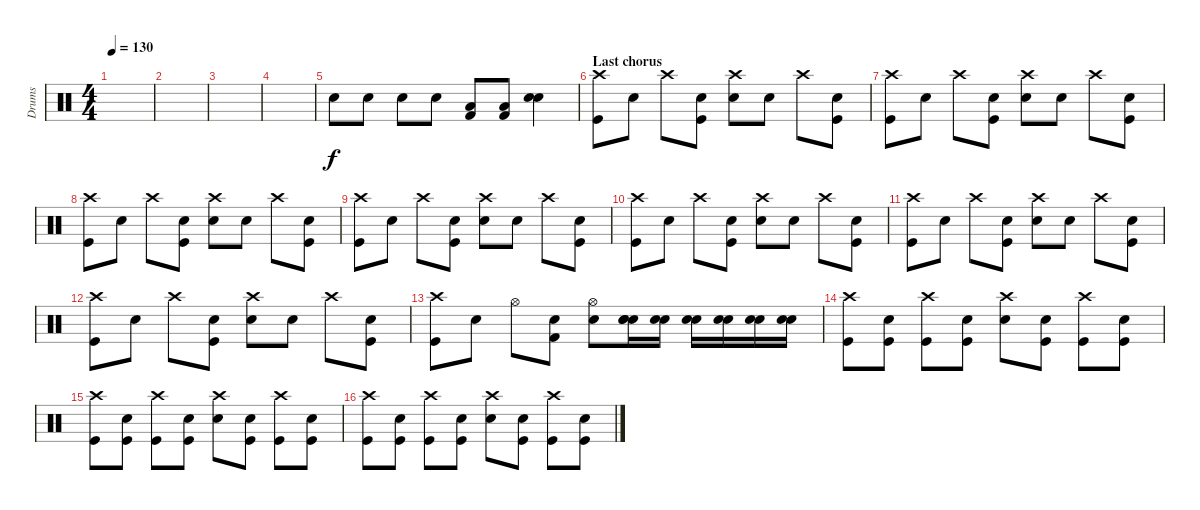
\track ("Drums" "Drums") {instrument percussion}
\staff {score}
\articulation defaults
\ts (4 4)
\tempo 130
\clef neutral
\ks c
|
|
|
|
"Snare (hit)"{x}.8 "Snare (hit)"{x}.8 "Snare (hit)"{x}.8 "Snare (hit)"{x}.8 ("Kick (hit) 2" "Low Tom (hit)").8 ("Kick (hit) 2" "Low Tom (hit)").8 ("Electric Snare (hit)" "Snare (hit) 2").4 |
\section ("" "Last chorus")
("Crash high (hit)" "Kick (hit)").8 "Snare (hit)"{x}.8 "Crash high (hit)".8 ("Snare (hit)"{x} "Kick (hit)").8 ("Crash high (hit)" "Electric Snare (hit)").8 "Snare (hit)"{x}.8 "Crash high (hit)".8 ("Snare (hit)"{x} "Kick (hit)").8 |
("Crash high (hit)" "Kick (hit)").8 "Snare (hit)"{x}.8 "Crash high (hit)".8 ("Snare (hit)"{x} "Kick (hit)").8 ("Crash high (hit)" "Electric Snare (hit)").8 "Snare (hit)"{x}.8 "Crash high (hit)".8 ("Snare (hit)"{x} "Kick (hit)").8 |
("Crash high (hit)" "Kick (hit)").8 "Snare (hit)"{x}.8 "Crash high (hit)".8 ("Snare (hit)"{x} "Kick (hit)").8 ("Crash high (hit)" "Electric Snare (hit)").8 "Snare (hit)"{x}.8 "Crash high (hit)".8 ("Snare (hit)"{x} "Kick (hit)").8 |
("Crash high (hit)" "Kick (hit)").8 "Snare (hit)"{x}.8 "Crash high (hit)".8 ("Snare (hit)"{x} "Kick (hit)").8 ("Crash high (hit)" "Electric Snare (hit)").8 "Snare (hit)"{x}.8 "Crash high (hit)".8 ("Snare (hit)"{x} "Kick (hit)").8 |
("Crash high (hit)" "Kick (hit)").8 "Snare (hit)"{x}.8 "Crash high (hit)".8 ("Snare (hit)"{x} "Kick (hit)").8 ("Crash high (hit)" "Electric Snare (hit)").8 "Snare (hit)"{x}.8 "Crash high (hit)".8 ("Snare (hit)"{x} "Kick (hit)").8 |
("Crash high (hit)" "Kick (hit)").8 "Snare (hit)"{x}.8 "Crash high (hit)".8 ("Snare (hit)"{x} "Kick (hit)").8 ("Crash high (hit)" "Electric Snare (hit)").8 "Snare (hit)"{x}.8 "Crash high (hit)".8 ("Snare (hit)"{x} "Kick (hit)").8 |
("Crash high (hit)" "Kick (hit)").8 "Snare (hit)"{x}.8 "Crash high (hit)".8 ("Snare (hit)"{x} "Kick (hit)").8 ("Crash high (hit)" "Electric Snare (hit)").8 "Snare (hit)"{x}.8 "Crash high (hit)".8 ("Snare (hit)"{x} "Kick (hit)").8 |
("Crash high (hit)" "Kick (hit)").8 "Snare (hit)"{x}.8 "Hi-Hat (open)".8 ("Snare (hit)"{x} "Kick (hit) 2").8 ("Hi-Hat (open)" "Electric Snare (hit)").8 ("Snare (hit)"{x} "Electric Snare (hit)" "Electric Snare (hit)").16 ("Electric Snare (hit)" "Electric Snare (hit)").16 ("Electric Snare (hit)" "Electric Snare (hit)").16 ("Electric Snare (hit)" "Electric Snare (hit)").16 ("Electric Snare (hit)" "Electric Snare (hit)").16 ("Electric Snare (hit)" "Electric Snare (hit)").16 |
("Crash high (hit)" "Kick (hit)").8 ("Snare (hit)"{x} "Kick (hit)").8 ("Crash high (hit)" "Kick (hit)").8 ("Snare (hit)"{x} "Kick (hit)").8 ("Crash high (hit)" "Electric Snare (hit)").8 ("Snare (hit)"{x} "Kick (hit)").8 ("Crash high (hit)" "Kick (hit)").8 ("Snare (hit)"{x} "Kick (hit)").8 |
("Crash high (hit)" "Kick (hit)").8 ("Snare (hit)"{x} "Kick (hit)").8 ("Crash high (hit)" "Kick (hit)").8 ("Snare (hit)"{x} "Kick (hit)").8 ("Crash high (hit)" "Electric Snare (hit)").8 ("Snare (hit)"{x} "Kick (hit)").8 ("Crash high (hit)" "Kick (hit)").8 ("Snare (hit)"{x} "Kick (hit)").8 |
("Crash high (hit)" "Kick (hit)").8 ("Snare (hit)"{x} "Kick (hit)").8 ("Crash high (hit)" "Kick (hit)").8 ("Snare (hit)"{x} "Kick (hit)").8 ("Crash high (hit)" "Electric Snare (hit)").8 ("Snare (hit)"{x} "Kick (hit)").8 ("Crash high (hit)" "Kick (hit)").8 ("Snare (hit)"{x} "Kick (hit)").8
